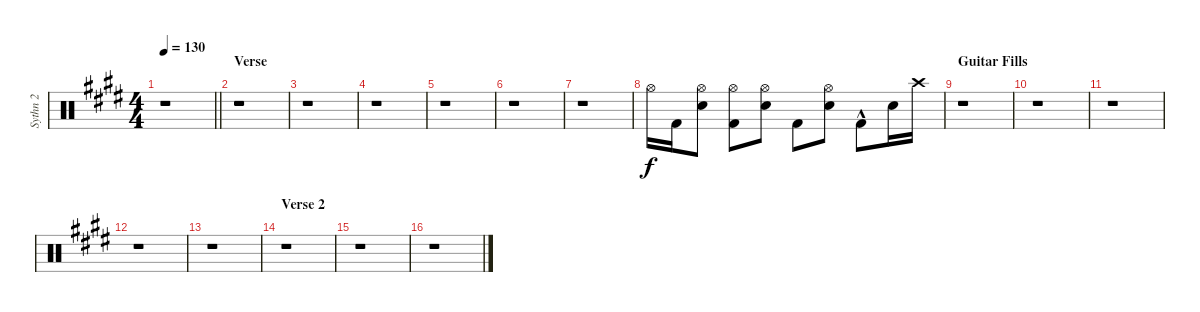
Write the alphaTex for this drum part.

\track ("Sythn 2" "Sythn 2") {instrument percussion}
\staff {score}
\articulation defaults
\ts (4 4)
\tempo 130
\clef neutral
\barLineRight lightlight
\ks e
r.1{dy f} |
\section ("" "Verse")
r.1 |
r.1 |
r.1 |
r.1 |
r.1 |
r.1 |
"Hi-Hat (open)".16 "Kick (hit) 2".16 ("Hi-Hat (open)" "Snare (hit) 2").8 ("Hi-Hat (open)" "Kick (hit) 2").8 ("Hi-Hat (open)" "Snare (hit) 2").8 "Kick (hit) 2".8 ("Hi-Hat (open)" "Snare (hit) 2").8 "Kick (hit) 2"{hac}.8 "Snare (hit) 2".16 "Crash high (hit)".16 |
\section ("" "Guitar Fills")
r.1 |
r.1 |
r.1 |
r.1 |
r.1 |
\section ("" "Verse 2")
r.1 |
r.1 |
r.1
